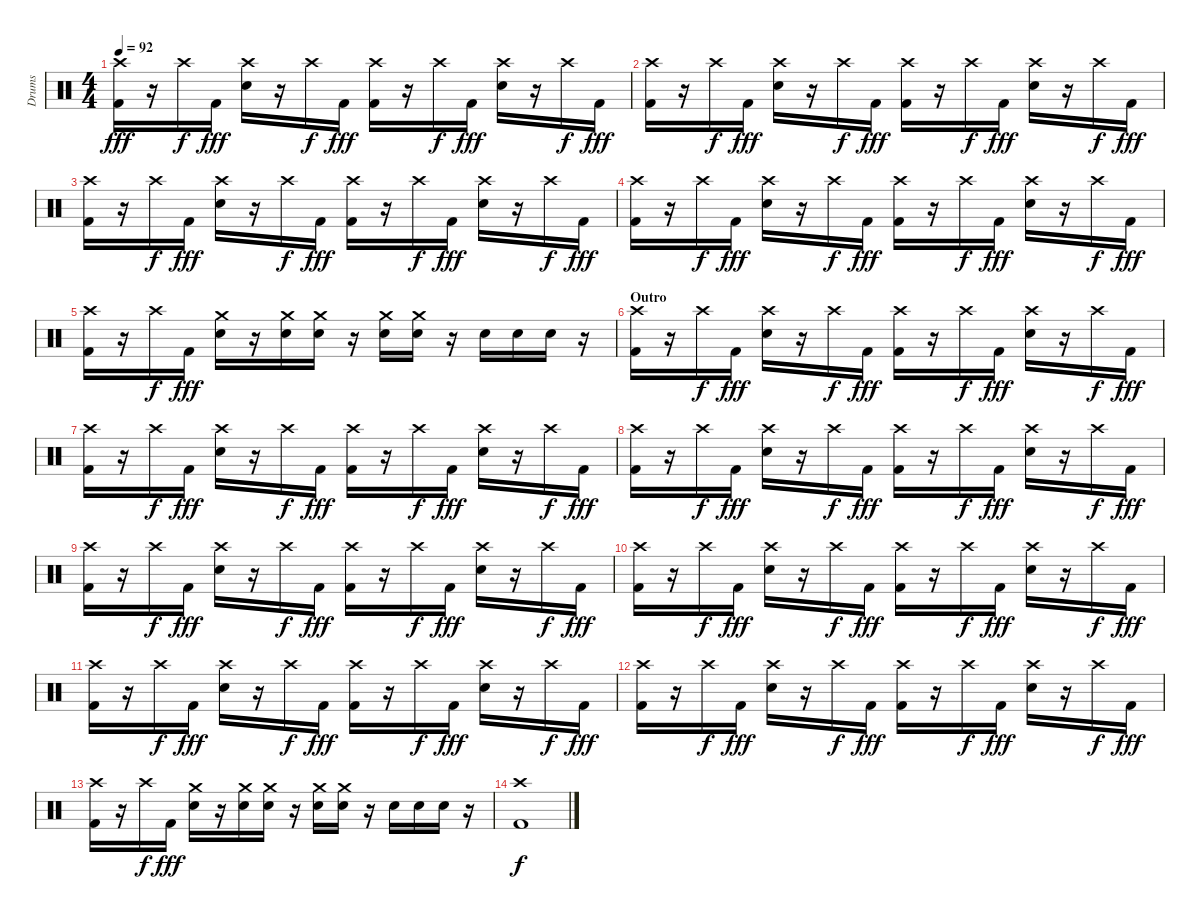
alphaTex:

\track ("Drums" "Drums") {instrument percussion}
\staff {score}
\articulation defaults
\ts (4 4)
\tempo 92
\clef neutral
\ks c
("Crash high (hit)" "Kick (hit) 2").16{dy fff} r.16 "Crash high (hit)".16{dy f} "Kick (hit) 2".16{dy fff} ("Crash high (hit)" "Electric Snare (hit)").16 r.16 "Crash high (hit)".16{dy f} "Kick (hit) 2".16{dy fff} ("Crash high (hit)" "Kick (hit) 2").16 r.16 "Crash high (hit)".16{dy f} "Kick (hit) 2".16{dy fff} ("Crash high (hit)" "Electric Snare (hit)").16 r.16 "Crash high (hit)".16{dy f} "Kick (hit) 2".16{dy fff} |
("Crash high (hit)" "Kick (hit) 2").16 r.16 "Crash high (hit)".16{dy f} "Kick (hit) 2".16{dy fff} ("Crash high (hit)" "Electric Snare (hit)").16 r.16 "Crash high (hit)".16{dy f} "Kick (hit) 2".16{dy fff} ("Crash high (hit)" "Kick (hit) 2").16 r.16 "Crash high (hit)".16{dy f} "Kick (hit) 2".16{dy fff} ("Crash high (hit)" "Electric Snare (hit)").16 r.16 "Crash high (hit)".16{dy f} "Kick (hit) 2".16{dy fff} |
("Crash high (hit)" "Kick (hit) 2").16 r.16 "Crash high (hit)".16{dy f} "Kick (hit) 2".16{dy fff} ("Crash high (hit)" "Electric Snare (hit)").16 r.16 "Crash high (hit)".16{dy f} "Kick (hit) 2".16{dy fff} ("Crash high (hit)" "Kick (hit) 2").16 r.16 "Crash high (hit)".16{dy f} "Kick (hit) 2".16{dy fff} ("Crash high (hit)" "Electric Snare (hit)").16 r.16 "Crash high (hit)".16{dy f} "Kick (hit) 2".16{dy fff} |
("Crash high (hit)" "Kick (hit) 2").16 r.16 "Crash high (hit)".16{dy f} "Kick (hit) 2".16{dy fff} ("Crash high (hit)" "Electric Snare (hit)").16 r.16 "Crash high (hit)".16{dy f} "Kick (hit) 2".16{dy fff} ("Crash high (hit)" "Kick (hit) 2").16 r.16 "Crash high (hit)".16{dy f} "Kick (hit) 2".16{dy fff} ("Crash high (hit)" "Electric Snare (hit)").16 r.16 "Crash high (hit)".16{dy f} "Kick (hit) 2".16{dy fff} |
("Crash high (hit)" "Kick (hit) 2").16 r.16 "Crash high (hit)".16{dy f} "Kick (hit) 2".16{dy fff} ("Crash medium (hit)" "Electric Snare (hit)").16 r.16 ("Crash medium (hit)" "Electric Snare (hit)").16 ("Crash medium (hit)" "Electric Snare (hit)").16 r.16 ("Crash medium (hit)" "Electric Snare (hit)").16 ("Crash medium (hit)" "Electric Snare (hit)").16 r.16 "Electric Snare (hit)".16 "Electric Snare (hit)".16 "Electric Snare (hit)".16 r.16 |
\section ("" "Outro")
("Crash high (hit)" "Kick (hit) 2").16 r.16 "Crash high (hit)".16{dy f} "Kick (hit) 2".16{dy fff} ("Crash high (hit)" "Electric Snare (hit)").16 r.16 "Crash high (hit)".16{dy f} "Kick (hit) 2".16{dy fff} ("Crash high (hit)" "Kick (hit) 2").16 r.16 "Crash high (hit)".16{dy f} "Kick (hit) 2".16{dy fff} ("Crash high (hit)" "Electric Snare (hit)").16 r.16 "Crash high (hit)".16{dy f} "Kick (hit) 2".16{dy fff} |
("Crash high (hit)" "Kick (hit) 2").16 r.16 "Crash high (hit)".16{dy f} "Kick (hit) 2".16{dy fff} ("Crash high (hit)" "Electric Snare (hit)").16 r.16 "Crash high (hit)".16{dy f} "Kick (hit) 2".16{dy fff} ("Crash high (hit)" "Kick (hit) 2").16 r.16 "Crash high (hit)".16{dy f} "Kick (hit) 2".16{dy fff} ("Crash high (hit)" "Electric Snare (hit)").16 r.16 "Crash high (hit)".16{dy f} "Kick (hit) 2".16{dy fff} |
("Crash high (hit)" "Kick (hit) 2").16 r.16 "Crash high (hit)".16{dy f} "Kick (hit) 2".16{dy fff} ("Crash high (hit)" "Electric Snare (hit)").16 r.16 "Crash high (hit)".16{dy f} "Kick (hit) 2".16{dy fff} ("Crash high (hit)" "Kick (hit) 2").16 r.16 "Crash high (hit)".16{dy f} "Kick (hit) 2".16{dy fff} ("Crash high (hit)" "Electric Snare (hit)").16 r.16 "Crash high (hit)".16{dy f} "Kick (hit) 2".16{dy fff} |
("Crash high (hit)" "Kick (hit) 2").16 r.16 "Crash high (hit)".16{dy f} "Kick (hit) 2".16{dy fff} ("Crash high (hit)" "Electric Snare (hit)").16 r.16 "Crash high (hit)".16{dy f} "Kick (hit) 2".16{dy fff} ("Crash high (hit)" "Kick (hit) 2").16 r.16 "Crash high (hit)".16{dy f} "Kick (hit) 2".16{dy fff} ("Crash high (hit)" "Electric Snare (hit)").16 r.16 "Crash high (hit)".16{dy f} "Kick (hit) 2".16{dy fff} |
("Crash high (hit)" "Kick (hit) 2").16 r.16 "Crash high (hit)".16{dy f} "Kick (hit) 2".16{dy fff} ("Crash high (hit)" "Electric Snare (hit)").16 r.16 "Crash high (hit)".16{dy f} "Kick (hit) 2".16{dy fff} ("Crash high (hit)" "Kick (hit) 2").16 r.16 "Crash high (hit)".16{dy f} "Kick (hit) 2".16{dy fff} ("Crash high (hit)" "Electric Snare (hit)").16 r.16 "Crash high (hit)".16{dy f} "Kick (hit) 2".16{dy fff} |
("Crash high (hit)" "Kick (hit) 2").16 r.16 "Crash high (hit)".16{dy f} "Kick (hit) 2".16{dy fff} ("Crash high (hit)" "Electric Snare (hit)").16 r.16 "Crash high (hit)".16{dy f} "Kick (hit) 2".16{dy fff} ("Crash high (hit)" "Kick (hit) 2").16 r.16 "Crash high (hit)".16{dy f} "Kick (hit) 2".16{dy fff} ("Crash high (hit)" "Electric Snare (hit)").16 r.16 "Crash high (hit)".16{dy f} "Kick (hit) 2".16{dy fff} |
("Crash high (hit)" "Kick (hit) 2").16 r.16 "Crash high (hit)".16{dy f} "Kick (hit) 2".16{dy fff} ("Crash high (hit)" "Electric Snare (hit)").16 r.16 "Crash high (hit)".16{dy f} "Kick (hit) 2".16{dy fff} ("Crash high (hit)" "Kick (hit) 2").16 r.16 "Crash high (hit)".16{dy f} "Kick (hit) 2".16{dy fff} ("Crash high (hit)" "Electric Snare (hit)").16 r.16 "Crash high (hit)".16{dy f} "Kick (hit) 2".16{dy fff} |
("Crash high (hit)" "Kick (hit) 2").16 r.16 "Crash high (hit)".16{dy f} "Kick (hit) 2".16{dy fff} ("Crash medium (hit)" "Electric Snare (hit)").16 r.16 ("Crash medium (hit)" "Electric Snare (hit)").16 ("Crash medium (hit)" "Electric Snare (hit)").16 r.16 ("Crash medium (hit)" "Electric Snare (hit)").16 ("Crash medium (hit)" "Electric Snare (hit)").16 r.16 "Electric Snare (hit)".16 "Electric Snare (hit)".16 "Electric Snare (hit)".16 r.16 |
("Crash high (hit)" "Kick (hit) 2").1{dy f}
